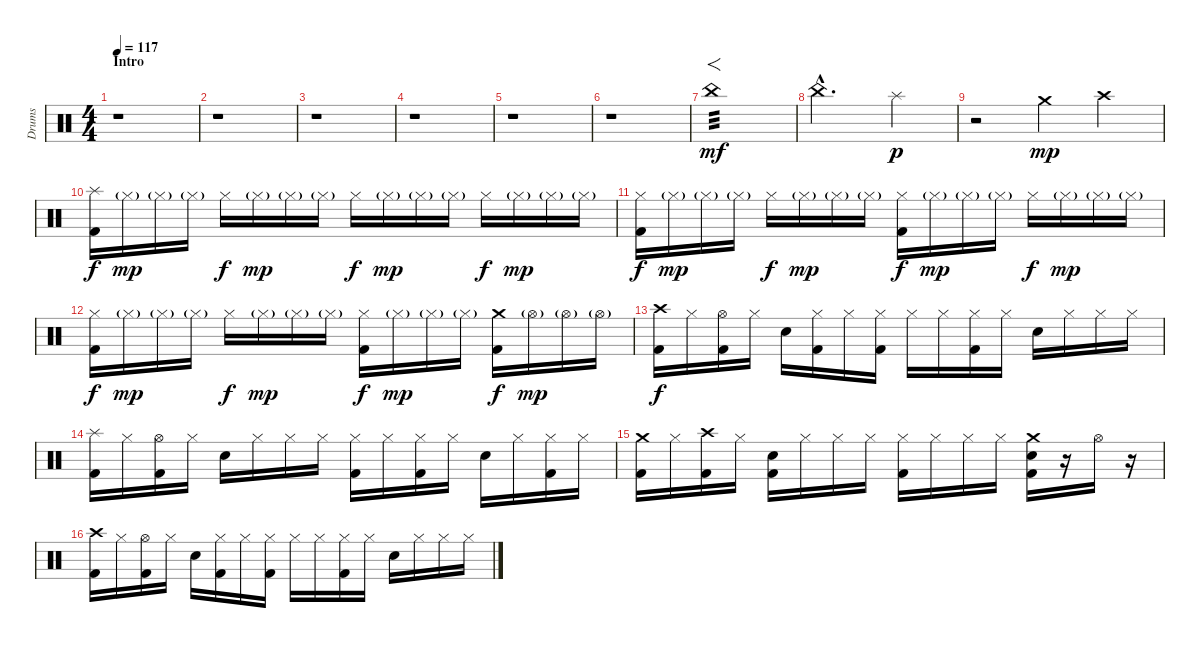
\track ("Drums" "Drums") {instrument percussion}
\staff {score}
\articulation defaults
\ts (4 4)
\section ("" "Intro")
\tempo 117
\clef neutral
\ks c
r.1{dy mf} |
r.1 |
r.1 |
r.1 |
r.1 |
r.1 |
"China (hit)".1{f tp 3} |
"China (hit)"{hac}.2{d} "Splash (hit)".4{dy p} |
r.2 "Crash medium (hit)".4{dy mp} "Crash high (hit)".4 |
("Splash (hit)" "Kick (hit) 2").16{dy f} "Hi-Hat (closed)"{g}.16{dy mp} "Hi-Hat (closed)"{g}.16 "Hi-Hat (closed)"{g}.16 "Hi-Hat (closed)".16{dy f} "Hi-Hat (closed)"{g}.16{dy mp} "Hi-Hat (closed)"{g}.16 "Hi-Hat (closed)"{g}.16 "Hi-Hat (closed)".16{dy f} "Hi-Hat (closed)"{g}.16{dy mp} "Hi-Hat (closed)"{g}.16 "Hi-Hat (closed)"{g}.16 "Hi-Hat (closed)".16{dy f} "Hi-Hat (closed)"{g}.16{dy mp} "Hi-Hat (closed)"{g}.16 "Hi-Hat (closed)"{g}.16 |
("Hi-Hat (closed)" "Kick (hit) 2").16{dy f} "Hi-Hat (closed)"{g}.16{dy mp} "Hi-Hat (closed)"{g}.16 "Hi-Hat (closed)"{g}.16 "Hi-Hat (closed)".16{dy f} "Hi-Hat (closed)"{g}.16{dy mp} "Hi-Hat (closed)"{g}.16 "Hi-Hat (closed)"{g}.16 ("Hi-Hat (closed)" "Kick (hit) 2").16{dy f} "Hi-Hat (closed)"{g}.16{dy mp} "Hi-Hat (closed)"{g}.16 "Hi-Hat (closed)"{g}.16 "Hi-Hat (closed)".16{dy f} "Hi-Hat (closed)"{g}.16{dy mp} "Hi-Hat (closed)"{g}.16 "Hi-Hat (closed)"{g}.16 |
("Hi-Hat (closed)" "Kick (hit) 2").16{dy f} "Hi-Hat (closed)"{g}.16{dy mp} "Hi-Hat (closed)"{g}.16 "Hi-Hat (closed)"{g}.16 "Hi-Hat (closed)".16{dy f} "Hi-Hat (closed)"{g}.16{dy mp} "Hi-Hat (closed)"{g}.16 "Hi-Hat (closed)"{g}.16 ("Hi-Hat (closed)" "Kick (hit) 2").16{dy f} "Hi-Hat (closed)"{g}.16{dy mp} "Hi-Hat (closed)"{g}.16 "Hi-Hat (closed)"{g}.16 ("Crash medium (hit)" "Kick (hit) 2").16{dy f} "Hi-Hat (open)"{g}.16{dy mp} "Hi-Hat (open)"{g}.16 "Hi-Hat (open)"{g}.16 |
("Crash high (hit)" "Kick (hit) 2").16{dy f} "Hi-Hat (closed)".16 ("Hi-Hat (open)" "Kick (hit) 2").16 "Hi-Hat (closed)".16 "Electric Snare (hit)".16 ("Hi-Hat (closed)" "Kick (hit) 2").16 "Hi-Hat (closed)".16 ("Hi-Hat (closed)" "Kick (hit) 2").16 "Hi-Hat (closed)".16 "Hi-Hat (closed)".16 ("Hi-Hat (closed)" "Kick (hit) 2").16 "Hi-Hat (closed)".16 "Electric Snare (hit)".16 "Hi-Hat (closed)".16 "Hi-Hat (closed)".16 "Hi-Hat (closed)".16 |
("Splash (hit)" "Kick (hit) 2").16 "Hi-Hat (closed)".16 ("Hi-Hat (open)" "Kick (hit) 2").16 "Hi-Hat (closed)".16 "Electric Snare (hit)".16 "Hi-Hat (closed)".16 "Hi-Hat (closed)".16 "Hi-Hat (closed)".16 ("Hi-Hat (closed)" "Kick (hit) 2").16 "Hi-Hat (closed)".16 ("Hi-Hat (closed)" "Kick (hit) 2").16 "Hi-Hat (closed)".16 "Electric Snare (hit)".16 "Hi-Hat (closed)".16 ("Hi-Hat (closed)" "Kick (hit) 2").16 "Hi-Hat (closed)".16 |
("Crash medium (hit)" "Kick (hit) 2").16 "Hi-Hat (closed)".16 ("Crash high (hit)" "Kick (hit) 2").16 "Hi-Hat (closed)".16 ("Electric Snare (hit)" "Kick (hit) 2").16 "Hi-Hat (closed)".16 "Hi-Hat (closed)".16 "Hi-Hat (closed)".16 ("Hi-Hat (closed)" "Kick (hit) 2").16 "Hi-Hat (closed)".16 "Hi-Hat (closed)".16 "Hi-Hat (closed)".16 ("Crash medium (hit)" "Electric Snare (hit)" "Kick (hit) 2").16 r.16 "Hi-Hat (open)".16 r.16 |
("Crash high (hit)" "Kick (hit) 2").16 "Hi-Hat (closed)".16 ("Hi-Hat (open)" "Kick (hit) 2").16 "Hi-Hat (closed)".16 "Electric Snare (hit)".16 ("Hi-Hat (closed)" "Kick (hit) 2").16 "Hi-Hat (closed)".16 ("Hi-Hat (closed)" "Kick (hit) 2").16 "Hi-Hat (closed)".16 "Hi-Hat (closed)".16 ("Hi-Hat (closed)" "Kick (hit) 2").16 "Hi-Hat (closed)".16 "Electric Snare (hit)".16 "Hi-Hat (closed)".16 "Hi-Hat (closed)".16 "Hi-Hat (closed)".16
